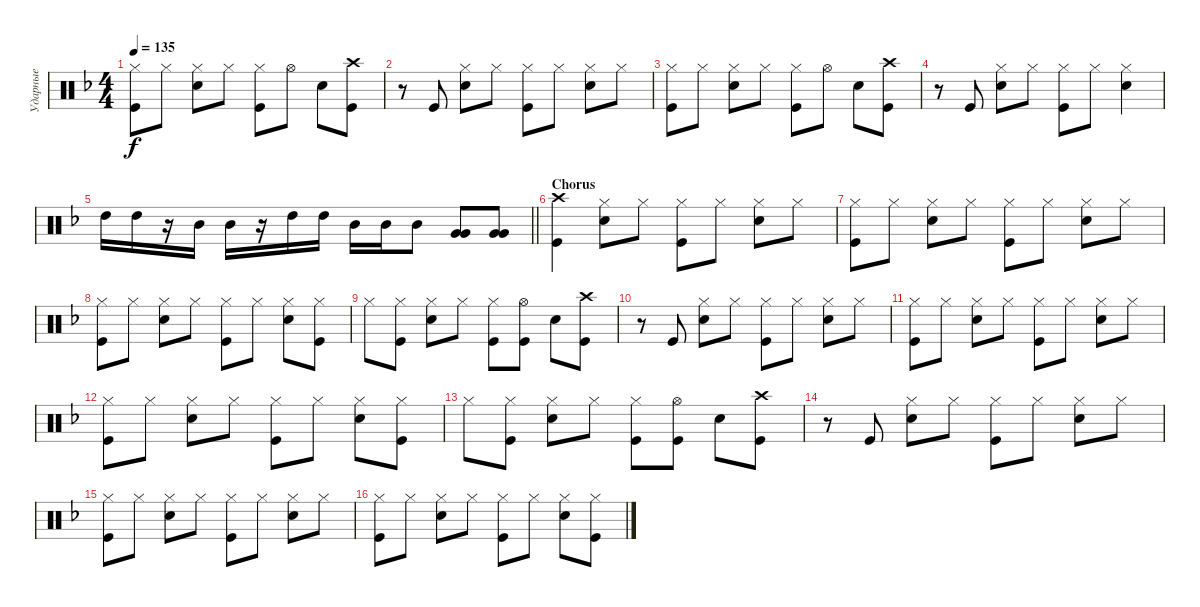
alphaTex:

\track ("Ударные" "Ударные") {instrument percussion}
\staff {score}
\articulation defaults
\ts (4 4)
\tempo 135
\clef neutral
\ks dminor
("Hi-Hat (closed)" "Kick (hit)").8{dy f} "Hi-Hat (closed)".8 ("Hi-Hat (closed)" "Snare (hit) 2").8 "Hi-Hat (closed)".8 ("Hi-Hat (closed)" "Kick (hit)").8 "Hi-Hat (open)".8 "Snare (hit) 2".8 ("Kick (hit)" "Crash high (hit)").8 |
r.8 "Kick (hit)".8 ("Hi-Hat (closed)" "Snare (hit) 2").8 "Hi-Hat (closed)".8 ("Hi-Hat (closed)" "Kick (hit)").8 "Hi-Hat (closed)".8 ("Hi-Hat (closed)" "Snare (hit) 2").8 "Hi-Hat (closed)".8 |
("Hi-Hat (closed)" "Kick (hit)").8 "Hi-Hat (closed)".8 ("Hi-Hat (closed)" "Snare (hit) 2").8 "Hi-Hat (closed)".8 ("Hi-Hat (closed)" "Kick (hit)").8 "Hi-Hat (open)".8 "Snare (hit) 2".8 ("Kick (hit)" "Crash high (hit)").8 |
r.8 "Kick (hit)".8 ("Hi-Hat (closed)" "Snare (hit) 2").8 "Hi-Hat (closed)".8 ("Hi-Hat (closed)" "Kick (hit)").8 "Hi-Hat (closed)".8 ("Hi-Hat (closed)" "Snare (hit) 2").4 |
\barLineRight lightlight "High Tom (hit)".16{bd 480} "High Tom (hit)".16
r.16 "Mid Tom (hit)".16 "Mid Tom (hit)".16 r.16 "High Tom (hit)".16 "High Tom (hit)".16 "Mid Tom (hit)".16 "Mid Tom (hit)".16 "Mid Tom (hit)".8 ("Very Low Tom (hit)" "Very Low Tom (hit)").8{bd 120} ("Very Low Tom (hit)" "Very Low Tom (hit)").8{bd 120} |
\section ("" "Chorus")
("Crash high (hit)" "Kick (hit)").4 ("Hi-Hat (closed)" "Snare (hit) 2").8 "Hi-Hat (closed)".8 ("Hi-Hat (closed)" "Kick (hit)").8 "Hi-Hat (closed)".8 ("Hi-Hat (closed)" "Snare (hit) 2").8 "Hi-Hat (closed)".8 |
("Hi-Hat (closed)" "Kick (hit)").8 "Hi-Hat (closed)".8 ("Hi-Hat (closed)" "Snare (hit) 2").8 "Hi-Hat (closed)".8 ("Hi-Hat (closed)" "Kick (hit)").8 "Hi-Hat (closed)".8 ("Hi-Hat (closed)" "Snare (hit) 2").8 "Hi-Hat (closed)".8 |
("Hi-Hat (closed)" "Kick (hit)").8 "Hi-Hat (closed)".8 ("Hi-Hat (closed)" "Snare (hit) 2").8 "Hi-Hat (closed)".8 ("Hi-Hat (closed)" "Kick (hit)").8 "Hi-Hat (closed)".8 ("Hi-Hat (closed)" "Snare (hit) 2").8 ("Hi-Hat (closed)" "Kick (hit)").8 |
"Hi-Hat (closed)".8 ("Hi-Hat (closed)" "Kick (hit)").8 ("Hi-Hat (closed)" "Snare (hit) 2").8 "Hi-Hat (closed)".8 ("Hi-Hat (closed)" "Kick (hit)").8 ("Hi-Hat (open)" "Kick (hit)").8 "Snare (hit) 2".8 ("Kick (hit)" "Crash high (hit)").8 |
r.8 "Kick (hit)".8 ("Hi-Hat (closed)" "Snare (hit) 2").8 "Hi-Hat (closed)".8 ("Hi-Hat (closed)" "Kick (hit)").8 "Hi-Hat (closed)".8 ("Hi-Hat (closed)" "Snare (hit) 2").8 "Hi-Hat (closed)".8 |
("Hi-Hat (closed)" "Kick (hit)").8 "Hi-Hat (closed)".8 ("Hi-Hat (closed)" "Snare (hit) 2").8 "Hi-Hat (closed)".8 ("Hi-Hat (closed)" "Kick (hit)").8 "Hi-Hat (closed)".8 ("Hi-Hat (closed)" "Snare (hit) 2").8 "Hi-Hat (closed)".8 |
("Hi-Hat (closed)" "Kick (hit)").8 "Hi-Hat (closed)".8 ("Hi-Hat (closed)" "Snare (hit) 2").8 "Hi-Hat (closed)".8 ("Hi-Hat (closed)" "Kick (hit)").8 "Hi-Hat (closed)".8 ("Hi-Hat (closed)" "Snare (hit) 2").8 ("Hi-Hat (closed)" "Kick (hit)").8 |
"Hi-Hat (closed)".8 ("Hi-Hat (closed)" "Kick (hit)").8 ("Hi-Hat (closed)" "Snare (hit) 2").8 "Hi-Hat (closed)".8 ("Hi-Hat (closed)" "Kick (hit)").8 ("Hi-Hat (open)" "Kick (hit)").8 "Snare (hit) 2".8 ("Kick (hit)" "Crash high (hit)").8 |
r.8 "Kick (hit)".8 ("Hi-Hat (closed)" "Snare (hit) 2").8 "Hi-Hat (closed)".8 ("Hi-Hat (closed)" "Kick (hit)").8 "Hi-Hat (closed)".8 ("Hi-Hat (closed)" "Snare (hit) 2").8 "Hi-Hat (closed)".8 |
("Hi-Hat (closed)" "Kick (hit)").8 "Hi-Hat (closed)".8 ("Hi-Hat (closed)" "Snare (hit) 2").8 "Hi-Hat (closed)".8 ("Hi-Hat (closed)" "Kick (hit)").8 "Hi-Hat (closed)".8 ("Hi-Hat (closed)" "Snare (hit) 2").8 "Hi-Hat (closed)".8 |
("Hi-Hat (closed)" "Kick (hit)").8 "Hi-Hat (closed)".8 ("Hi-Hat (closed)" "Snare (hit) 2").8 "Hi-Hat (closed)".8 ("Hi-Hat (closed)" "Kick (hit)").8 "Hi-Hat (closed)".8 ("Hi-Hat (closed)" "Snare (hit) 2").8 ("Hi-Hat (closed)" "Kick (hit)").8
